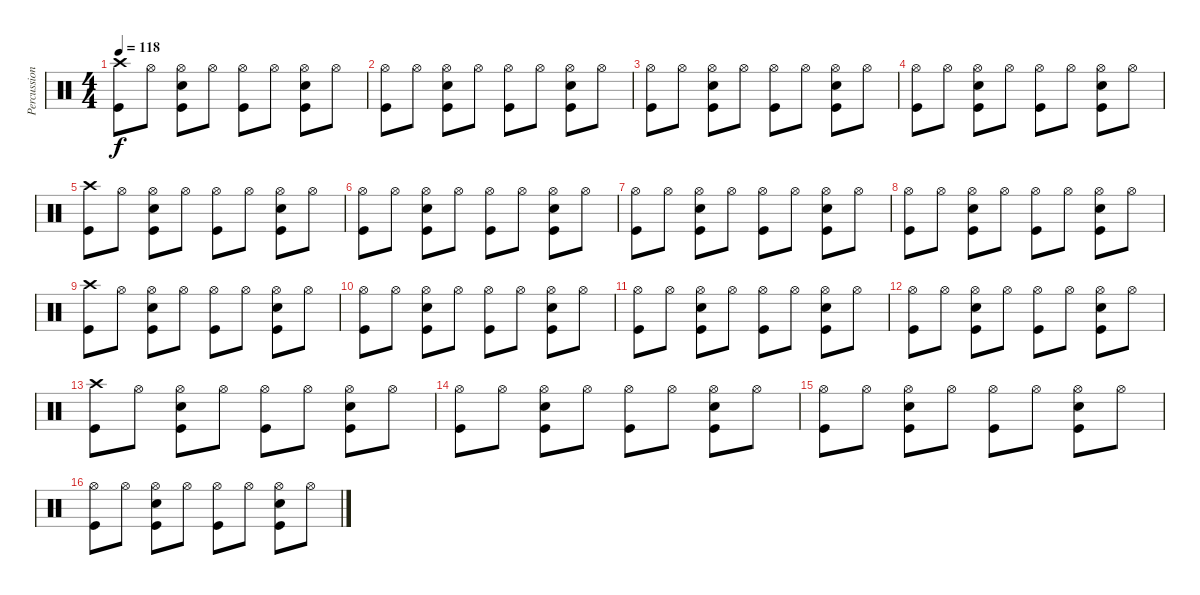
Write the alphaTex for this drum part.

\track ("Percussion" "Percussion") {instrument percussion}
\staff {score}
\articulation defaults
\ts (4 4)
\tempo 118
\clef neutral
\ks c
("Crash high (hit)" "Kick (hit)").8{dy f} "Hi-Hat (open)".8 ("Hi-Hat (open)" "Electric Snare (hit)" "Kick (hit)").8 "Hi-Hat (open)".8 ("Hi-Hat (open)" "Kick (hit)").8 "Hi-Hat (open)".8 ("Hi-Hat (open)" "Electric Snare (hit)" "Kick (hit)").8 "Hi-Hat (open)".8 |
("Hi-Hat (open)" "Kick (hit)").8 "Hi-Hat (open)".8 ("Hi-Hat (open)" "Electric Snare (hit)" "Kick (hit)").8 "Hi-Hat (open)".8 ("Hi-Hat (open)" "Kick (hit)").8 "Hi-Hat (open)".8 ("Hi-Hat (open)" "Electric Snare (hit)" "Kick (hit)").8 "Hi-Hat (open)".8 |
("Hi-Hat (open)" "Kick (hit)").8 "Hi-Hat (open)".8 ("Hi-Hat (open)" "Electric Snare (hit)" "Kick (hit)").8 "Hi-Hat (open)".8 ("Hi-Hat (open)" "Kick (hit)").8 "Hi-Hat (open)".8 ("Hi-Hat (open)" "Electric Snare (hit)" "Kick (hit)").8 "Hi-Hat (open)".8 |
("Hi-Hat (open)" "Kick (hit)").8 "Hi-Hat (open)".8 ("Hi-Hat (open)" "Electric Snare (hit)" "Kick (hit)").8 "Hi-Hat (open)".8 ("Hi-Hat (open)" "Kick (hit)").8 "Hi-Hat (open)".8 ("Hi-Hat (open)" "Electric Snare (hit)" "Kick (hit)").8 "Hi-Hat (open)".8 |
("Crash high (hit)" "Kick (hit)").8 "Hi-Hat (open)".8 ("Hi-Hat (open)" "Electric Snare (hit)" "Kick (hit)").8 "Hi-Hat (open)".8 ("Hi-Hat (open)" "Kick (hit)").8 "Hi-Hat (open)".8 ("Hi-Hat (open)" "Electric Snare (hit)" "Kick (hit)").8 "Hi-Hat (open)".8 |
("Hi-Hat (open)" "Kick (hit)").8 "Hi-Hat (open)".8 ("Hi-Hat (open)" "Electric Snare (hit)" "Kick (hit)").8 "Hi-Hat (open)".8 ("Hi-Hat (open)" "Kick (hit)").8 "Hi-Hat (open)".8 ("Hi-Hat (open)" "Electric Snare (hit)" "Kick (hit)").8 "Hi-Hat (open)".8 |
("Hi-Hat (open)" "Kick (hit)").8 "Hi-Hat (open)".8 ("Hi-Hat (open)" "Electric Snare (hit)" "Kick (hit)").8 "Hi-Hat (open)".8 ("Hi-Hat (open)" "Kick (hit)").8 "Hi-Hat (open)".8 ("Hi-Hat (open)" "Electric Snare (hit)" "Kick (hit)").8 "Hi-Hat (open)".8 |
("Hi-Hat (open)" "Kick (hit)").8 "Hi-Hat (open)".8 ("Hi-Hat (open)" "Electric Snare (hit)" "Kick (hit)").8 "Hi-Hat (open)".8 ("Hi-Hat (open)" "Kick (hit)").8 "Hi-Hat (open)".8 ("Hi-Hat (open)" "Electric Snare (hit)" "Kick (hit)").8 "Hi-Hat (open)".8 |
("Crash high (hit)" "Kick (hit)").8 "Hi-Hat (open)".8 ("Hi-Hat (open)" "Electric Snare (hit)" "Kick (hit)").8 "Hi-Hat (open)".8 ("Hi-Hat (open)" "Kick (hit)").8 "Hi-Hat (open)".8 ("Hi-Hat (open)" "Electric Snare (hit)" "Kick (hit)").8 "Hi-Hat (open)".8 |
("Hi-Hat (open)" "Kick (hit)").8 "Hi-Hat (open)".8 ("Hi-Hat (open)" "Electric Snare (hit)" "Kick (hit)").8 "Hi-Hat (open)".8 ("Hi-Hat (open)" "Kick (hit)").8 "Hi-Hat (open)".8 ("Hi-Hat (open)" "Electric Snare (hit)" "Kick (hit)").8 "Hi-Hat (open)".8 |
("Hi-Hat (open)" "Kick (hit)").8 "Hi-Hat (open)".8 ("Hi-Hat (open)" "Electric Snare (hit)" "Kick (hit)").8 "Hi-Hat (open)".8 ("Hi-Hat (open)" "Kick (hit)").8 "Hi-Hat (open)".8 ("Hi-Hat (open)" "Electric Snare (hit)" "Kick (hit)").8 "Hi-Hat (open)".8 |
("Hi-Hat (open)" "Kick (hit)").8 "Hi-Hat (open)".8 ("Hi-Hat (open)" "Electric Snare (hit)" "Kick (hit)").8 "Hi-Hat (open)".8 ("Hi-Hat (open)" "Kick (hit)").8 "Hi-Hat (open)".8 ("Hi-Hat (open)" "Electric Snare (hit)" "Kick (hit)").8 "Hi-Hat (open)".8 |
("Crash high (hit)" "Kick (hit)").8 "Hi-Hat (open)".8 ("Hi-Hat (open)" "Electric Snare (hit)" "Kick (hit)").8 "Hi-Hat (open)".8 ("Hi-Hat (open)" "Kick (hit)").8 "Hi-Hat (open)".8 ("Hi-Hat (open)" "Electric Snare (hit)" "Kick (hit)").8 "Hi-Hat (open)".8 |
("Hi-Hat (open)" "Kick (hit)").8 "Hi-Hat (open)".8 ("Hi-Hat (open)" "Electric Snare (hit)" "Kick (hit)").8 "Hi-Hat (open)".8 ("Hi-Hat (open)" "Kick (hit)").8 "Hi-Hat (open)".8 ("Hi-Hat (open)" "Electric Snare (hit)" "Kick (hit)").8 "Hi-Hat (open)".8 |
("Hi-Hat (open)" "Kick (hit)").8 "Hi-Hat (open)".8 ("Hi-Hat (open)" "Electric Snare (hit)" "Kick (hit)").8 "Hi-Hat (open)".8 ("Hi-Hat (open)" "Kick (hit)").8 "Hi-Hat (open)".8 ("Hi-Hat (open)" "Electric Snare (hit)" "Kick (hit)").8 "Hi-Hat (open)".8 |
("Hi-Hat (open)" "Kick (hit)").8 "Hi-Hat (open)".8 ("Hi-Hat (open)" "Electric Snare (hit)" "Kick (hit)").8 "Hi-Hat (open)".8 ("Hi-Hat (open)" "Kick (hit)").8 "Hi-Hat (open)".8 ("Hi-Hat (open)" "Electric Snare (hit)" "Kick (hit)").8 "Hi-Hat (open)".8
